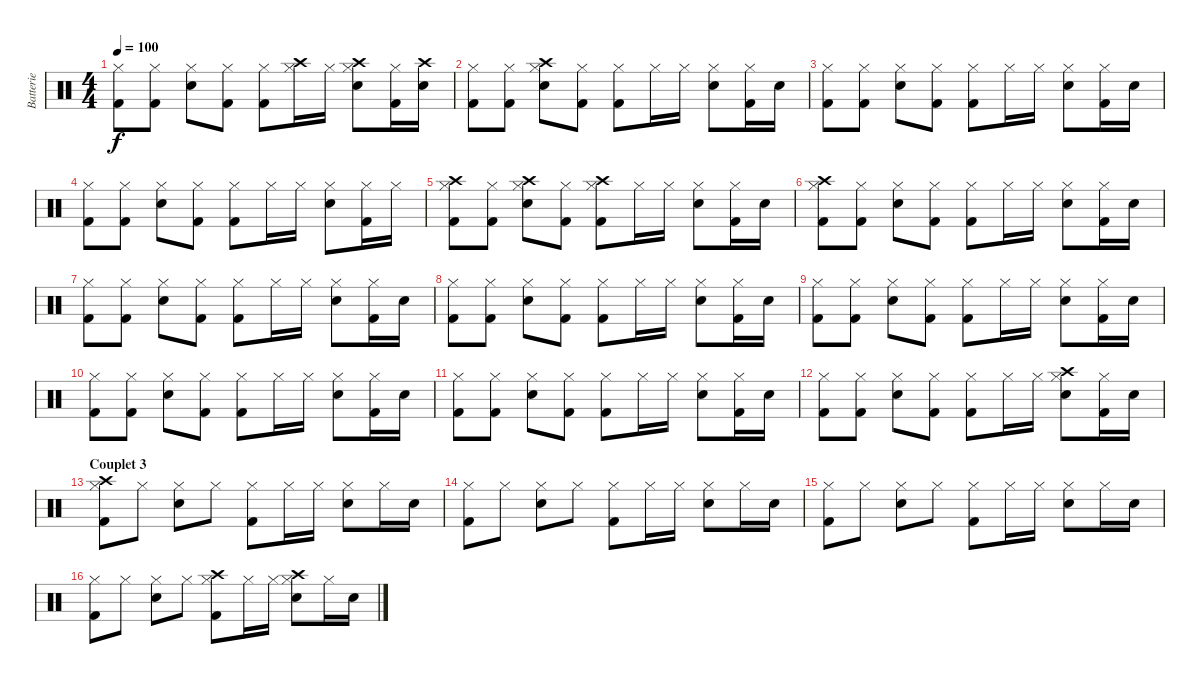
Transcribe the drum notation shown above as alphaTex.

\track ("Batterie" "Batterie") {instrument percussion}
\staff {score}
\articulation defaults
\ts (4 4)
\tempo 100
\clef neutral
\ks c
("Kick (hit) 2" "Hi-Hat (closed)").8{dy f} ("Kick (hit) 2" "Hi-Hat (closed)").8 ("Snare (hit) 2" "Hi-Hat (closed)").8 ("Kick (hit) 2" "Hi-Hat (closed)").8 ("Kick (hit) 2" "Hi-Hat (closed)").8 ("Crash high (hit)" "Hi-Hat (closed)").16 "Hi-Hat (closed)".16 ("Snare (hit) 2" "Crash high (hit)" "Hi-Hat (closed)").8 ("Kick (hit) 2" "Hi-Hat (closed)").16 ("Snare (hit) 2" "Crash high (hit)").16 |
("Kick (hit) 2" "Hi-Hat (closed)").8 ("Kick (hit) 2" "Hi-Hat (closed)").8 ("Snare (hit) 2" "Crash high (hit)" "Hi-Hat (closed)").8 ("Kick (hit) 2" "Hi-Hat (closed)").8 ("Kick (hit) 2" "Hi-Hat (closed)").8 "Hi-Hat (closed)".16 "Hi-Hat (closed)".16 ("Snare (hit) 2" "Hi-Hat (closed)").8 ("Kick (hit) 2" "Hi-Hat (closed)").16 "Snare (hit) 2".16 |
("Kick (hit) 2" "Hi-Hat (closed)").8 ("Kick (hit) 2" "Hi-Hat (closed)").8 ("Snare (hit) 2" "Hi-Hat (closed)").8 ("Kick (hit) 2" "Hi-Hat (closed)").8 ("Kick (hit) 2" "Hi-Hat (closed)").8 "Hi-Hat (closed)".16 "Hi-Hat (closed)".16 ("Snare (hit) 2" "Hi-Hat (closed)").8 ("Kick (hit) 2" "Hi-Hat (closed)").16 "Snare (hit) 2".16 |
("Kick (hit) 2" "Hi-Hat (closed)").8 ("Kick (hit) 2" "Hi-Hat (closed)").8 ("Snare (hit) 2" "Hi-Hat (closed)").8 ("Kick (hit) 2" "Hi-Hat (closed)").8 ("Kick (hit) 2" "Hi-Hat (closed)").8 "Hi-Hat (closed)".16 "Hi-Hat (closed)".16 ("Snare (hit) 2" "Hi-Hat (closed)").8 ("Kick (hit) 2" "Hi-Hat (closed)").16 "Hi-Hat (closed)".16 |
("Kick (hit) 2" "Crash high (hit)" "Hi-Hat (closed)").8 ("Kick (hit) 2" "Hi-Hat (closed)").8 ("Snare (hit) 2" "Crash high (hit)" "Hi-Hat (closed)").8 ("Kick (hit) 2" "Hi-Hat (closed)").8 ("Kick (hit) 2" "Crash high (hit)" "Hi-Hat (closed)").8 "Hi-Hat (closed)".16 "Hi-Hat (closed)".16 ("Snare (hit) 2" "Hi-Hat (closed)").8 ("Kick (hit) 2" "Hi-Hat (closed)").16 "Snare (hit) 2".16 |
("Kick (hit) 2" "Crash high (hit)" "Hi-Hat (closed)").8 ("Kick (hit) 2" "Hi-Hat (closed)").8 ("Snare (hit) 2" "Hi-Hat (closed)").8 ("Kick (hit) 2" "Hi-Hat (closed)").8 ("Kick (hit) 2" "Hi-Hat (closed)").8 "Hi-Hat (closed)".16 "Hi-Hat (closed)".16 ("Snare (hit) 2" "Hi-Hat (closed)").8 ("Kick (hit) 2" "Hi-Hat (closed)").16 "Snare (hit) 2".16 |
("Kick (hit) 2" "Hi-Hat (closed)").8 ("Kick (hit) 2" "Hi-Hat (closed)").8 ("Snare (hit) 2" "Hi-Hat (closed)").8 ("Kick (hit) 2" "Hi-Hat (closed)").8 ("Kick (hit) 2" "Hi-Hat (closed)").8 "Hi-Hat (closed)".16 "Hi-Hat (closed)".16 ("Snare (hit) 2" "Hi-Hat (closed)").8 ("Kick (hit) 2" "Hi-Hat (closed)").16 "Snare (hit) 2".16 |
("Kick (hit) 2" "Hi-Hat (closed)").8 ("Kick (hit) 2" "Hi-Hat (closed)").8 ("Snare (hit) 2" "Hi-Hat (closed)").8 ("Kick (hit) 2" "Hi-Hat (closed)").8 ("Kick (hit) 2" "Hi-Hat (closed)").8 "Hi-Hat (closed)".16 "Hi-Hat (closed)".16 ("Snare (hit) 2" "Hi-Hat (closed)").8 ("Kick (hit) 2" "Hi-Hat (closed)").16 "Snare (hit) 2".16 |
("Kick (hit) 2" "Hi-Hat (closed)").8 ("Kick (hit) 2" "Hi-Hat (closed)").8 ("Snare (hit) 2" "Hi-Hat (closed)").8 ("Kick (hit) 2" "Hi-Hat (closed)").8 ("Kick (hit) 2" "Hi-Hat (closed)").8 "Hi-Hat (closed)".16 "Hi-Hat (closed)".16 ("Snare (hit) 2" "Hi-Hat (closed)").8 ("Kick (hit) 2" "Hi-Hat (closed)").16 "Snare (hit) 2".16 |
("Kick (hit) 2" "Hi-Hat (closed)").8 ("Kick (hit) 2" "Hi-Hat (closed)").8 ("Snare (hit) 2" "Hi-Hat (closed)").8 ("Kick (hit) 2" "Hi-Hat (closed)").8 ("Kick (hit) 2" "Hi-Hat (closed)").8 "Hi-Hat (closed)".16 "Hi-Hat (closed)".16 ("Snare (hit) 2" "Hi-Hat (closed)").8 ("Kick (hit) 2" "Hi-Hat (closed)").16 "Snare (hit) 2".16 |
("Kick (hit) 2" "Hi-Hat (closed)").8 ("Kick (hit) 2" "Hi-Hat (closed)").8 ("Snare (hit) 2" "Hi-Hat (closed)").8 ("Kick (hit) 2" "Hi-Hat (closed)").8 ("Kick (hit) 2" "Hi-Hat (closed)").8 "Hi-Hat (closed)".16 "Hi-Hat (closed)".16 ("Snare (hit) 2" "Hi-Hat (closed)").8 ("Kick (hit) 2" "Hi-Hat (closed)").16 "Snare (hit) 2".16 |
("Kick (hit) 2" "Hi-Hat (closed)").8 ("Kick (hit) 2" "Hi-Hat (closed)").8 ("Snare (hit) 2" "Hi-Hat (closed)").8 ("Kick (hit) 2" "Hi-Hat (closed)").8 ("Kick (hit) 2" "Hi-Hat (closed)").8 "Hi-Hat (closed)".16 "Hi-Hat (closed)".16 ("Snare (hit) 2" "Crash high (hit)" "Hi-Hat (closed)").8 ("Kick (hit) 2" "Hi-Hat (closed)").16 "Snare (hit) 2".16 |
\section ("" "Couplet 3")
("Kick (hit) 2" "Crash high (hit)" "Hi-Hat (closed)").8 "Hi-Hat (closed)".8 ("Electric Snare (hit)" "Hi-Hat (closed)").8 "Hi-Hat (closed)".8 ("Kick (hit) 2" "Hi-Hat (closed)").8 "Hi-Hat (closed)".16 "Hi-Hat (closed)".16 ("Electric Snare (hit)" "Hi-Hat (closed)").8 "Hi-Hat (closed)".16 "Electric Snare (hit)".16 |
("Kick (hit) 2" "Hi-Hat (closed)").8 "Hi-Hat (closed)".8 ("Electric Snare (hit)" "Hi-Hat (closed)").8 "Hi-Hat (closed)".8 ("Kick (hit) 2" "Hi-Hat (closed)").8 "Hi-Hat (closed)".16 "Hi-Hat (closed)".16 ("Electric Snare (hit)" "Hi-Hat (closed)").8 "Hi-Hat (closed)".16 "Electric Snare (hit)".16 |
("Kick (hit) 2" "Hi-Hat (closed)").8 "Hi-Hat (closed)".8 ("Electric Snare (hit)" "Hi-Hat (closed)").8 "Hi-Hat (closed)".8 ("Kick (hit) 2" "Hi-Hat (closed)").8 "Hi-Hat (closed)".16 "Hi-Hat (closed)".16 ("Electric Snare (hit)" "Hi-Hat (closed)").8 "Hi-Hat (closed)".16 "Electric Snare (hit)".16 |
("Kick (hit) 2" "Hi-Hat (closed)").8 "Hi-Hat (closed)".8 ("Electric Snare (hit)" "Hi-Hat (closed)").8 "Hi-Hat (closed)".8 ("Kick (hit) 2" "Crash high (hit)" "Hi-Hat (closed)").8 "Hi-Hat (closed)".16 "Hi-Hat (closed)".16 ("Electric Snare (hit)" "Crash high (hit)" "Hi-Hat (closed)").8 "Hi-Hat (closed)".16 "Electric Snare (hit)".16
